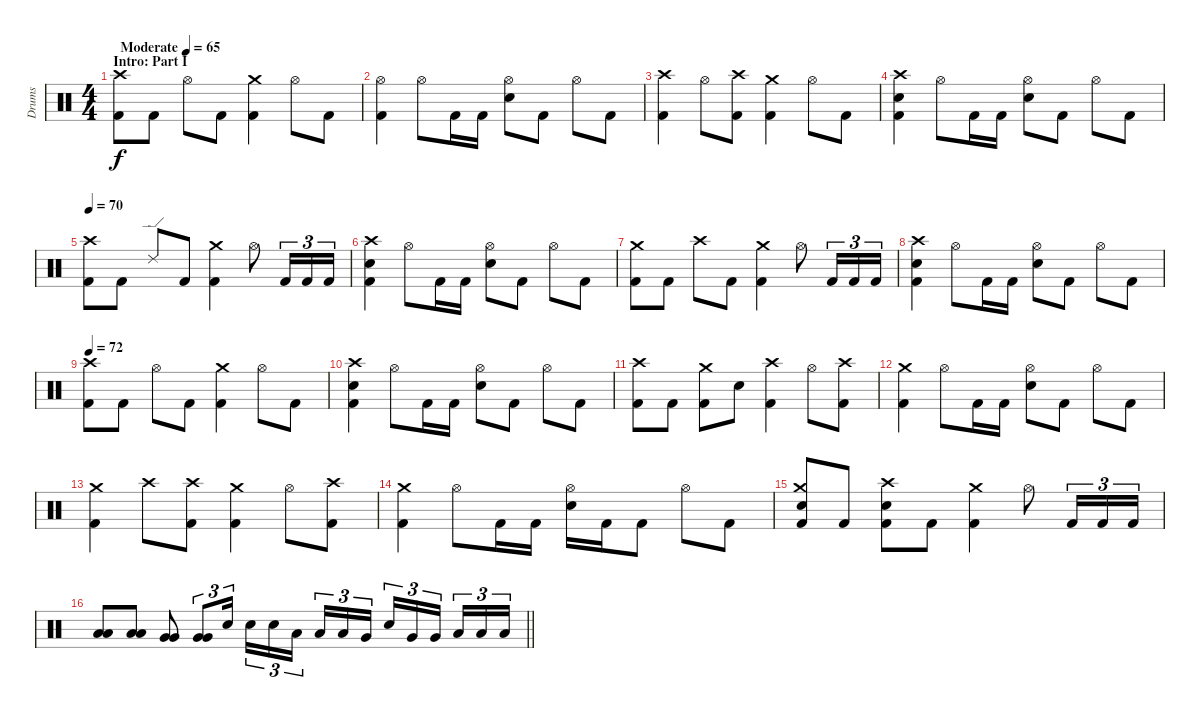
\track ("Drums" "Drums") {instrument percussion}
\staff {score}
\articulation defaults
\ts (4 4)
\section ("" "Intro: Part I")
\tempo (65 "Moderate")
\tempo 68
\tempo (65 "Moderate")
\clef neutral
\ks c
("Crash high (hit)" "Kick (hit) 2").8{dy f} "Kick (hit) 2".8 "Hi-Hat (open)".8 "Kick (hit) 2".8 ("Crash medium (hit)" "Kick (hit) 2").4 "Hi-Hat (open)".8 "Kick (hit) 2".8 |
("Hi-Hat (open)" "Kick (hit) 2").4 "Hi-Hat (open)".8 "Kick (hit) 2".16 "Kick (hit) 2".16 ("Hi-Hat (open)" "Electric Snare (hit)").8 "Kick (hit) 2".8 "Hi-Hat (open)".8 "Kick (hit) 2".8 |
("Crash high (hit)" "Kick (hit) 2").4 "Hi-Hat (open)".8 ("Crash high (hit)" "Kick (hit) 2").8 ("Crash medium (hit)" "Kick (hit) 2").4 "Hi-Hat (open)".8 "Kick (hit) 2".8 |
("Crash high (hit)" "Electric Snare (hit)" "Kick (hit) 2").4 "Hi-Hat (open)".8 "Kick (hit) 2".16 "Kick (hit) 2".16 ("Hi-Hat (open)" "Electric Snare (hit)").8 "Kick (hit) 2".8 "Hi-Hat (open)".8 "Kick (hit) 2".8 |
\tempo 70
("Crash high (hit)" "Kick (hit) 2").8 "Kick (hit) 2".8 "Ride (edge) 2".8 "Kick (hit) 2".8 ("Crash medium (hit)" "Kick (hit) 2").4 "Hi-Hat (open)".8 "Kick (hit) 2".16{tu (3 2)} "Kick (hit) 2".16{tu (3 2)} "Kick (hit) 2".16{tu (3 2)} |
("Crash high (hit)" "Electric Snare (hit)" "Kick (hit) 2").4 "Hi-Hat (open)".8 "Kick (hit) 2".16 "Kick (hit) 2".16 ("Hi-Hat (open)" "Electric Snare (hit)").8 "Kick (hit) 2".8 "Hi-Hat (open)".8 "Kick (hit) 2".8 |
("Crash medium (hit)" "Kick (hit) 2").8 "Kick (hit) 2".8 "Crash high (hit)".8 "Kick (hit) 2".8 ("Crash medium (hit)" "Kick (hit) 2").4 "Hi-Hat (open)".8 "Kick (hit) 2".16{tu (3 2)} "Kick (hit) 2".16{tu (3 2)} "Kick (hit) 2".16{tu (3 2)} |
("Crash high (hit)" "Electric Snare (hit)" "Kick (hit) 2").4 "Hi-Hat (open)".8 "Kick (hit) 2".16 "Kick (hit) 2".16 ("Hi-Hat (open)" "Electric Snare (hit)").8 "Kick (hit) 2".8 "Hi-Hat (open)".8 "Kick (hit) 2".8 |
\tempo 72
("Crash high (hit)" "Kick (hit) 2").8 "Kick (hit) 2".8 "Hi-Hat (open)".8 "Kick (hit) 2".8 ("Crash medium (hit)" "Kick (hit) 2").4 "Hi-Hat (open)".8 "Kick (hit) 2".8 |
("Crash high (hit)" "Electric Snare (hit)" "Kick (hit) 2").4 "Hi-Hat (open)".8 "Kick (hit) 2".16 "Kick (hit) 2".16 ("Hi-Hat (open)" "Electric Snare (hit)").8 "Kick (hit) 2".8 "Hi-Hat (open)".8 "Kick (hit) 2".8 |
("Crash high (hit)" "Kick (hit) 2").8 "Kick (hit) 2".8 ("Crash medium (hit)" "Kick (hit) 2").8 "Electric Snare (hit)".8 ("Crash high (hit)" "Kick (hit) 2").4 "Hi-Hat (open)".8 ("Crash high (hit)" "Kick (hit) 2").8 |
("Crash medium (hit)" "Kick (hit) 2").4 "Hi-Hat (open)".8 "Kick (hit) 2".16 "Kick (hit) 2".16 ("Hi-Hat (open)" "Electric Snare (hit)").8 "Kick (hit) 2".8 "Hi-Hat (open)".8 "Kick (hit) 2".8 |
("Crash medium (hit)" "Kick (hit) 2").4 "Crash high (hit)".8 ("Crash high (hit)" "Kick (hit) 2").8 ("Crash medium (hit)" "Kick (hit) 2").4 "Hi-Hat (open)".8 ("Crash high (hit)" "Kick (hit) 2").8 |
("Crash medium (hit)" "Kick (hit) 2").4 "Hi-Hat (open)".8 "Kick (hit) 2".16 "Kick (hit) 2".16 ("Hi-Hat (open)" "Electric Snare (hit)").16 "Kick (hit) 2".16 "Kick (hit) 2".8 "Hi-Hat (open)".8 "Kick (hit) 2".8 |
("Crash medium (hit)" "Electric Snare (hit)" "Kick (hit) 2").8 "Kick (hit) 2".8 ("Crash high (hit)" "Electric Snare (hit)" "Kick (hit) 2").8 "Kick (hit) 2".8 ("Crash medium (hit)" "Kick (hit) 2").4 "Hi-Hat (open)".8 "Kick (hit) 2".16{tu (3 2)} "Kick (hit) 2".16{tu (3 2)} "Kick (hit) 2".16{tu (3 2)} |
\barLineRight lightlight
("Low Tom (hit)" "Low Tom (hit)").8{bu 60} ("Low Tom (hit)" "Low Tom (hit)").8{bu 60} ("Very Low Tom (hit)" "Very Low Tom (hit)").8{bu 60} ("Very Low Tom (hit)" "Very Low Tom (hit)").8{tu (3 2) bu 60} "Electric Snare (hit)".16{tu (3 2)} "Electric Snare (hit)".16{tu (3 2)} "Electric Snare (hit)".16{tu (3 2)} "Low Tom (hit)".16{tu (3 2) beam splitsecondary} "Low Tom (hit)".16{tu (3 2)} "Low Tom (hit)".16{tu (3 2)} "Very Low Tom (hit)".16{tu (3 2)} "Electric Snare (hit)".16{tu (3 2)} "Very Low Tom (hit)".16{tu (3 2)} "Very Low Tom (hit)".16{tu (3 2) beam splitsecondary} "Low Floor Tom (hit)".16{tu (3 2)} "Low Floor Tom (hit)".16{tu (3 2)} "Low Floor Tom (hit)".16{tu (3 2)}
